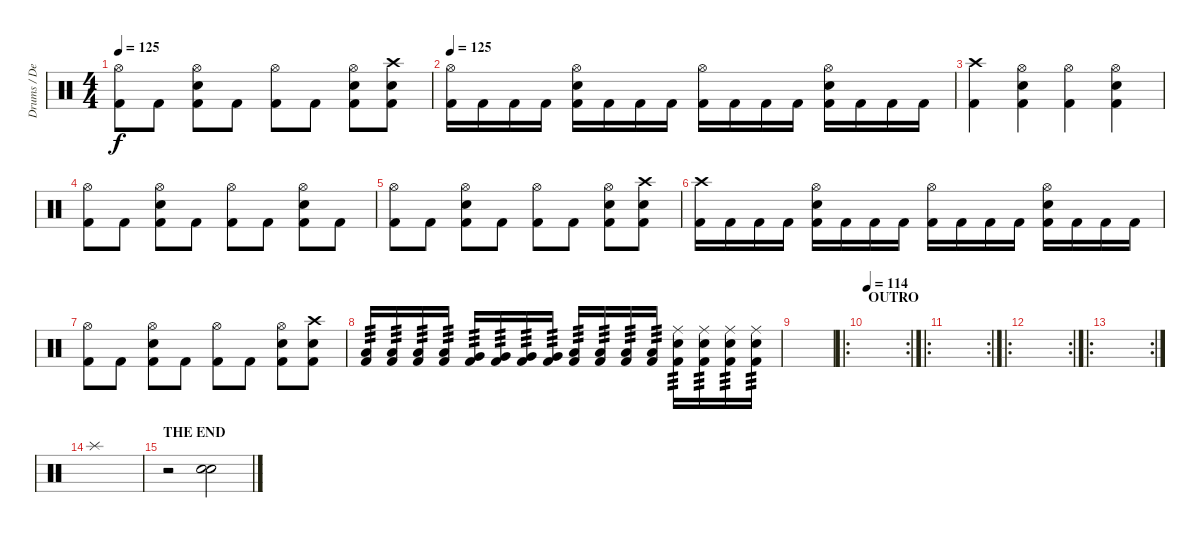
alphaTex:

\track ("Drums / Dennis" "Drums / De") {instrument percussion}
\staff {score}
\articulation defaults
\ts (4 4)
\tempo 125
\clef neutral
\ks c
("Hi-Hat (open)" "Kick (hit) 2").8{dy f} "Kick (hit) 2".8 ("Hi-Hat (open)" "Electric Snare (hit)" "Kick (hit) 2").8 "Kick (hit) 2".8 ("Hi-Hat (open)" "Kick (hit) 2").8 "Kick (hit) 2".8 ("Hi-Hat (open)" "Electric Snare (hit)" "Kick (hit) 2").8 ("Crash high (hit)" "Electric Snare (hit)" "Kick (hit) 2").8 |
\tempo 125
("Hi-Hat (open)" "Kick (hit) 2").16 "Kick (hit) 2".16 "Kick (hit) 2".16 "Kick (hit) 2".16 ("Hi-Hat (open)" "Electric Snare (hit)" "Kick (hit) 2").16 "Kick (hit) 2".16 "Kick (hit) 2".16 "Kick (hit) 2".16 ("Hi-Hat (open)" "Kick (hit) 2").16 "Kick (hit) 2".16 "Kick (hit) 2".16 "Kick (hit) 2".16 ("Hi-Hat (open)" "Electric Snare (hit)" "Kick (hit) 2").16 "Kick (hit) 2".16 "Kick (hit) 2".16 "Kick (hit) 2".16 |
("Crash high (hit)" "Kick (hit) 2").4 ("Hi-Hat (open)" "Electric Snare (hit)" "Kick (hit) 2").4 ("Hi-Hat (open)" "Kick (hit) 2").4 ("Hi-Hat (open)" "Electric Snare (hit)" "Kick (hit) 2").4 |
("Hi-Hat (open)" "Kick (hit) 2").8 "Kick (hit) 2".8 ("Hi-Hat (open)" "Electric Snare (hit)" "Kick (hit) 2").8 "Kick (hit) 2".8 ("Hi-Hat (open)" "Kick (hit) 2").8 "Kick (hit) 2".8 ("Hi-Hat (open)" "Electric Snare (hit)" "Kick (hit) 2").8 "Kick (hit) 2".8 |
("Hi-Hat (open)" "Kick (hit) 2").8 "Kick (hit) 2".8 ("Hi-Hat (open)" "Electric Snare (hit)" "Kick (hit) 2").8 "Kick (hit) 2".8 ("Hi-Hat (open)" "Kick (hit) 2").8 "Kick (hit) 2".8 ("Hi-Hat (open)" "Electric Snare (hit)" "Kick (hit) 2").8 ("Crash high (hit)" "Electric Snare (hit)" "Kick (hit) 2").8 |
("Crash high (hit)" "Kick (hit) 2").16 "Kick (hit) 2".16 "Kick (hit) 2".16 "Kick (hit) 2".16 ("Hi-Hat (open)" "Electric Snare (hit)" "Kick (hit) 2").16 "Kick (hit) 2".16 "Kick (hit) 2".16 "Kick (hit) 2".16 ("Hi-Hat (open)" "Kick (hit) 2").16 "Kick (hit) 2".16 "Kick (hit) 2".16 "Kick (hit) 2".16 ("Hi-Hat (open)" "Electric Snare (hit)" "Kick (hit) 2").16 "Kick (hit) 2".16 "Kick (hit) 2".16 "Kick (hit) 2".16 |
("Hi-Hat (open)" "Kick (hit) 2").8 "Kick (hit) 2".8 ("Hi-Hat (open)" "Electric Snare (hit)" "Kick (hit) 2").8 "Kick (hit) 2".8 ("Hi-Hat (open)" "Kick (hit) 2").8 "Kick (hit) 2".8 ("Hi-Hat (open)" "Electric Snare (hit)" "Kick (hit) 2").8 ("Crash high (hit)" "Electric Snare (hit)" "Kick (hit) 2").8 |
("Kick (hit) 2" "Low Tom (hit)").16{tp 3} ("Kick (hit) 2" "Low Tom (hit)").16{tp 3} ("Kick (hit) 2" "Low Tom (hit)").16{tp 3} ("Kick (hit) 2" "Low Tom (hit)").16{tp 3} ("Kick (hit) 2" "Very Low Tom (hit)").16{tp 3} ("Kick (hit) 2" "Very Low Tom (hit)").16{tp 3} ("Kick (hit) 2" "Very Low Tom (hit)").16{tp 3} ("Kick (hit) 2" "Very Low Tom (hit)").16{tp 3} ("Kick (hit) 2" "Low Floor Tom (hit)").16{tp 3} ("Kick (hit) 2" "Low Floor Tom (hit)").16{tp 3} ("Kick (hit) 2" "Low Floor Tom (hit)").16{tp 3} ("Kick (hit) 2" "Low Floor Tom (hit)").16{tp 3} ("Kick (hit) 2" "Ride (middle)" "Electric Snare (hit)").16{tp 3} ("Kick (hit) 2" "Ride (middle)" "Electric Snare (hit)").16{tp 3} ("Kick (hit) 2" "Ride (middle)" "Electric Snare (hit)").16{tp 3} ("Kick (hit) 2" "Ride (middle)" "Electric Snare (hit)").16{tp 3} |
|
\ro
\rc 2
\section ("" "OUTRO")
\tempo 114
|
\ro
\rc 2
|
\ro
\rc 2
|
\ro
\rc 2
|
"Splash (hit)".1 |
\section ("" "THE END")
r.2 ("Electric Snare (hit)" "Electric Snare (hit)").2{bd 240}
